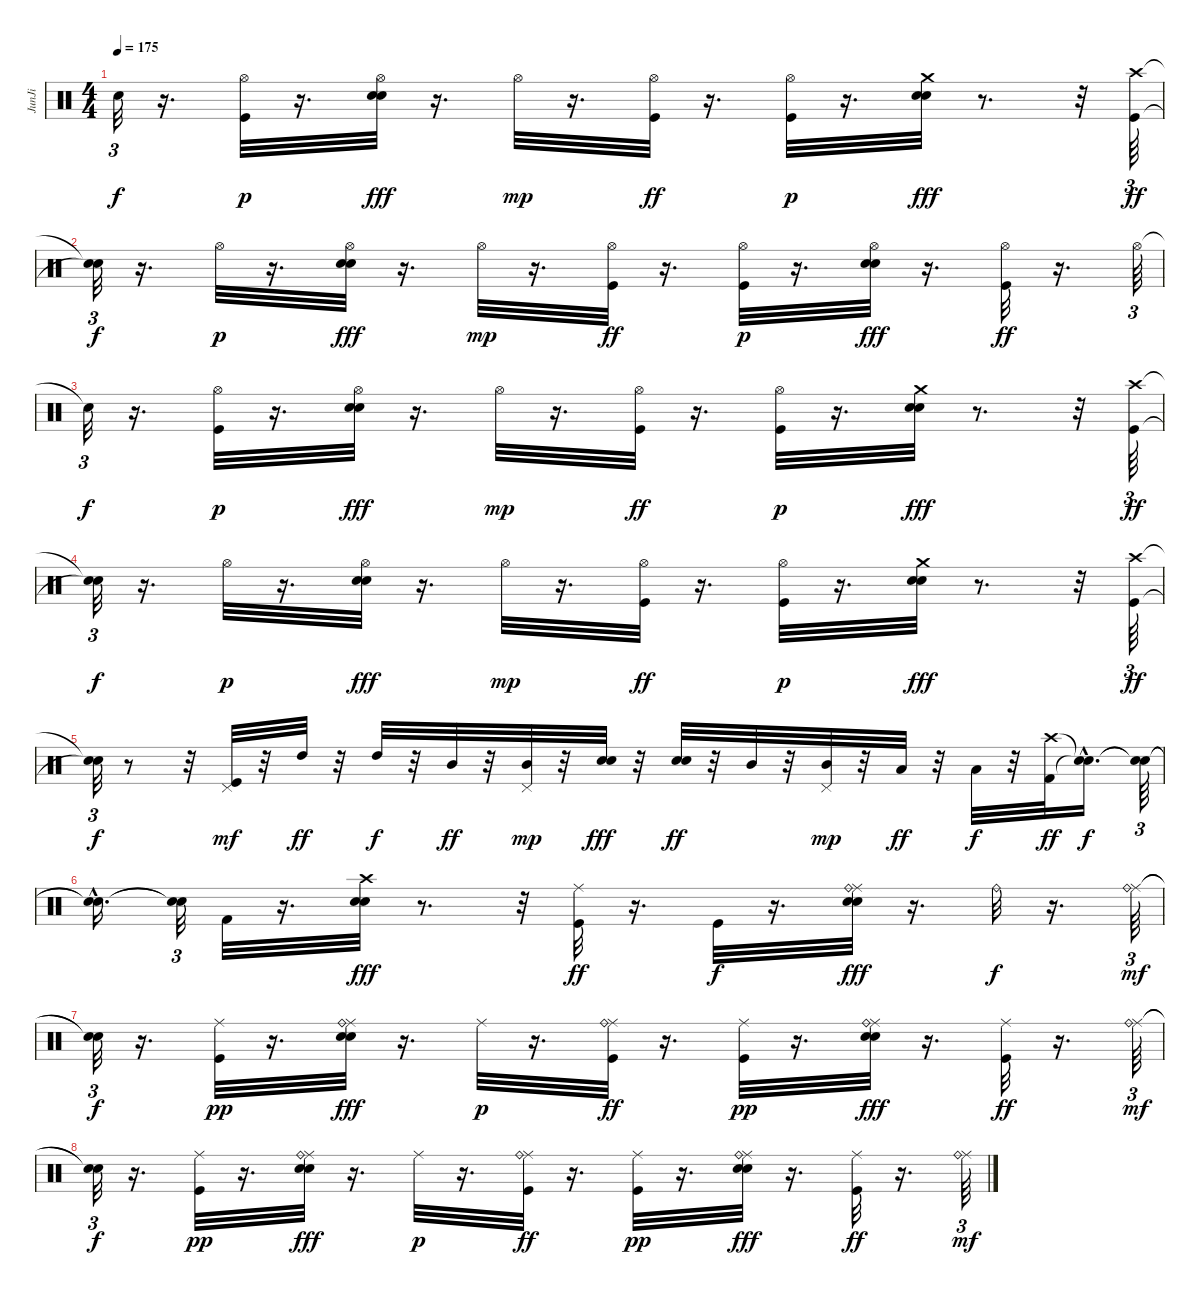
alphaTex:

\track ("JunJi" "JunJi") {instrument percussion}
\staff {score}
\articulation defaults
\ts (4 4)
\tempo 175
\clef neutral
\ks c "Snare (hit)"{t}.32{tu (3 2) dy f}
r.16{d} ("Hi-Hat (open)" "Kick (hit)").32{dy p} r.16{d} ("Hi-Hat (open)" "Electric Snare (hit)" "Snare (hit) 2").32{dy fff} r.16{d} "Hi-Hat (open)".32{dy mp} r.16{d} ("Hi-Hat (open)" "Kick (hit)").32{dy ff} r.16{d} ("Hi-Hat (open)" "Kick (hit)").32{dy p} r.16{d} ("Crash medium (hit)" "Electric Snare (hit)" "Snare (hit) 2").32{dy fff} r.8{d} r.32 ("Crash high (hit)" "Kick (hit)").64{tu (3 2) dy ff} |
("Snare (hit)"{t} "Snare (hit)"{t}).32{tu (3 2) dy f} r.16{d} "Hi-Hat (open)".32{dy p} r.16{d} ("Hi-Hat (open)" "Electric Snare (hit)" "Snare (hit) 2").32{dy fff} r.16{d} "Hi-Hat (open)".32{dy mp} r.16{d} ("Hi-Hat (open)" "Kick (hit)").32{dy ff} r.16{d} ("Hi-Hat (open)" "Kick (hit)").32{dy p} r.16{d} ("Hi-Hat (open)" "Electric Snare (hit)" "Snare (hit) 2").32{dy fff} r.16{d} ("Hi-Hat (open)" "Kick (hit)").32{dy ff} r.16{d} "Hi-Hat (open)".64{tu (3 2)} |
"Snare (hit)"{t}.32{tu (3 2) dy f} r.16{d} ("Hi-Hat (open)" "Kick (hit)").32{dy p} r.16{d} ("Hi-Hat (open)" "Electric Snare (hit)" "Snare (hit) 2").32{dy fff} r.16{d} "Hi-Hat (open)".32{dy mp} r.16{d} ("Hi-Hat (open)" "Kick (hit)").32{dy ff} r.16{d} ("Hi-Hat (open)" "Kick (hit)").32{dy p} r.16{d} ("Crash medium (hit)" "Electric Snare (hit)" "Snare (hit) 2").32{dy fff} r.8{d} r.32 ("Crash high (hit)" "Kick (hit)").64{tu (3 2) dy ff} |
("Snare (hit)"{t} "Snare (hit)"{t}).32{tu (3 2) dy f} r.16{d} "Hi-Hat (open)".32{dy p} r.16{d} ("Hi-Hat (open)" "Electric Snare (hit)" "Snare (hit) 2").32{dy fff} r.16{d} "Hi-Hat (open)".32{dy mp} r.16{d} ("Hi-Hat (open)" "Kick (hit)").32{dy ff} r.16{d} ("Hi-Hat (open)" "Kick (hit)").32{dy p} r.16{d} ("Crash medium (hit)" "Electric Snare (hit)" "Snare (hit) 2").32{dy fff} r.8{d} r.32 ("Crash high (hit)" "Kick (hit)").64{tu (3 2) dy ff} |
("Snare (hit)"{t} "Snare (hit)"{t}).32{tu (3 2) dy f} r.8 r.32 ("Pedal Hi-Hat (hit)" "Kick (hit)").32{dy mf} r.32 "High Tom (hit)".32{dy ff} r.32 "High Tom (hit)".32{dy f} r.32 "Mid Tom (hit)".32{dy ff} r.32 ("Pedal Hi-Hat (hit)" "Mid Tom (hit)").32{dy mp} r.32 ("Electric Snare (hit)" "Snare (hit) 2").32{dy fff} r.32 ("Electric Snare (hit)" "Snare (hit) 2").32{dy ff} r.32 "Mid Tom (hit)".32 r.32 ("Pedal Hi-Hat (hit)" "Mid Tom (hit)").32{dy mp} r.32 "Low Tom (hit)".32{dy ff} r.32 "Low Tom (hit)".32{dy f} r.32 ("Crash high (hit)" "Kick (hit) 2").32{dy ff} ("Snare (hit)"{hac t} "Snare (hit)"{hac t}).16{d dy f} ("Snare (hit)"{t} "Snare (hit)"{t}).64{tu (3 2)} |
("Snare (hit)"{hac t} "Snare (hit)"{hac t}).16{d} ("Snare (hit)"{t} "Snare (hit)"{t}).32{tu (3 2)} "Kick (hit) 2".32 r.16{d} ("Crash high (hit)" "Electric Snare (hit)" "Snare (hit) 2").32{dy fff} r.8{d} r.32 ("Ride (middle)" "Kick (hit)").32{dy ff} r.16{d} "Kick (hit)".32{dy f} r.16{d} ("Ride (middle)" "Ride (bell)" "Electric Snare (hit)" "Snare (hit) 2").32{dy fff} r.16{d} "Ride (bell)".32{dy f} r.16{d} ("Ride (middle)" "Ride (bell)").64{tu (3 2) dy mf} |
("Snare (hit)"{t} "Snare (hit)"{t}).32{tu (3 2) dy f} r.16{d} ("Ride (middle)" "Kick (hit)").32{dy pp} r.16{d} ("Ride (middle)" "Ride (bell)" "Electric Snare (hit)" "Snare (hit) 2").32{dy fff} r.16{d} "Ride (middle)".32{dy p} r.16{d} ("Ride (middle)" "Ride (bell)" "Kick (hit)").32{dy ff} r.16{d} ("Ride (middle)" "Kick (hit)").32{dy pp} r.16{d} ("Ride (middle)" "Ride (bell)" "Electric Snare (hit)" "Snare (hit) 2").32{dy fff} r.16{d} ("Ride (middle)" "Kick (hit)").32{dy ff} r.16{d} ("Ride (middle)" "Ride (bell)").64{tu (3 2) dy mf} |
("Snare (hit)"{t} "Snare (hit)"{t}).32{tu (3 2) dy f} r.16{d} ("Ride (middle)" "Kick (hit)").32{dy pp} r.16{d} ("Ride (middle)" "Ride (bell)" "Electric Snare (hit)" "Snare (hit) 2").32{dy fff} r.16{d} "Ride (middle)".32{dy p} r.16{d} ("Ride (middle)" "Ride (bell)" "Kick (hit)").32{dy ff} r.16{d} ("Ride (middle)" "Kick (hit)").32{dy pp} r.16{d} ("Ride (middle)" "Ride (bell)" "Electric Snare (hit)" "Snare (hit) 2").32{dy fff} r.16{d} ("Ride (middle)" "Kick (hit)").32{dy ff} r.16{d} ("Ride (middle)" "Ride (bell)").64{tu (3 2) dy mf}
